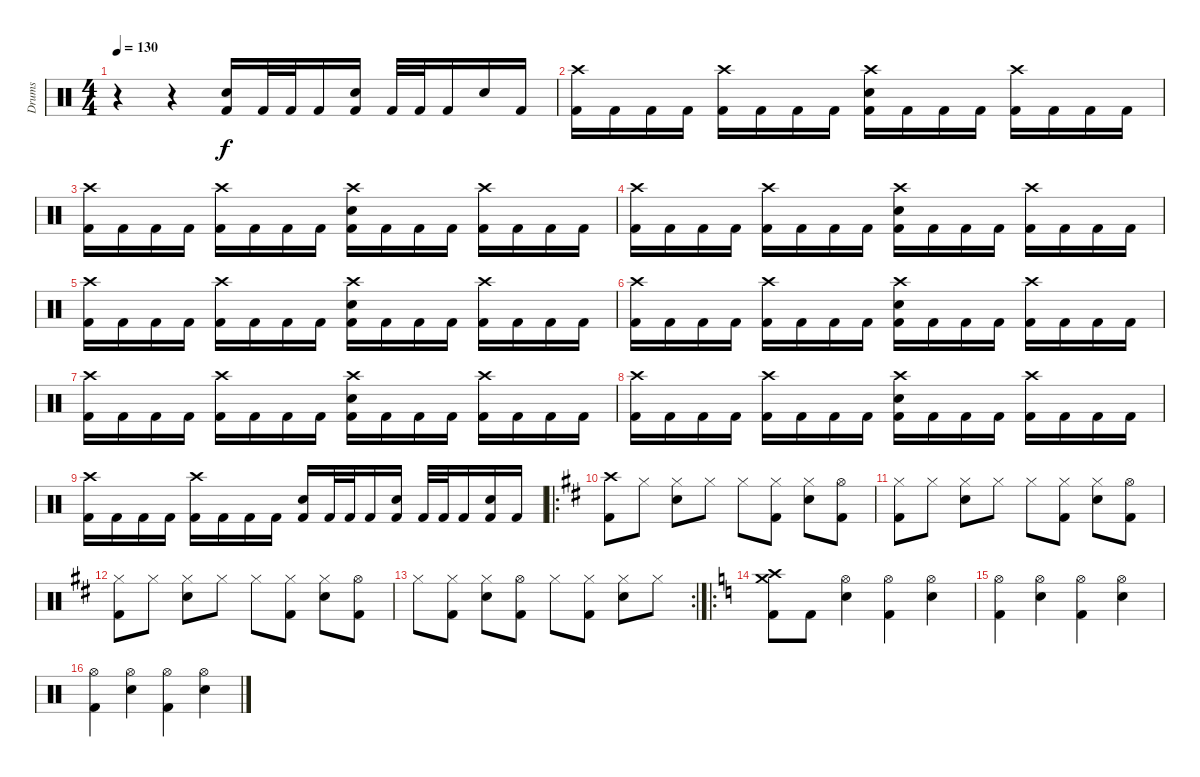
\track ("Drums" "Drums") {instrument percussion}
\staff {score}
\articulation defaults
\ts (4 4)
\tempo 130
\clef neutral
\ks c
r.4{dy f} r.4 ("Snare (hit) 2" "Kick (hit) 2").16 "Kick (hit) 2".32 "Kick (hit) 2".32 "Kick (hit) 2".16 ("Snare (hit) 2" "Kick (hit) 2").16 "Kick (hit) 2".32 "Kick (hit) 2".32 "Kick (hit) 2".16 "Snare (hit) 2".16 "Kick (hit) 2".16 |
("Crash high (hit)" "Kick (hit) 2").16 "Kick (hit) 2".16 "Kick (hit) 2".16 "Kick (hit) 2".16 ("Crash high (hit)" "Kick (hit) 2").16 "Kick (hit) 2".16 "Kick (hit) 2".16 "Kick (hit) 2".16 ("Crash high (hit)" "Snare (hit) 2" "Kick (hit) 2").16 "Kick (hit) 2".16 "Kick (hit) 2".16 "Kick (hit) 2".16 ("Crash high (hit)" "Kick (hit) 2").16 "Kick (hit) 2".16 "Kick (hit) 2".16 "Kick (hit) 2".16 |
("Crash high (hit)" "Kick (hit) 2").16 "Kick (hit) 2".16 "Kick (hit) 2".16 "Kick (hit) 2".16 ("Crash high (hit)" "Kick (hit) 2").16 "Kick (hit) 2".16 "Kick (hit) 2".16 "Kick (hit) 2".16 ("Crash high (hit)" "Snare (hit) 2" "Kick (hit) 2").16 "Kick (hit) 2".16 "Kick (hit) 2".16 "Kick (hit) 2".16 ("Crash high (hit)" "Kick (hit) 2").16 "Kick (hit) 2".16 "Kick (hit) 2".16 "Kick (hit) 2".16 |
("Crash high (hit)" "Kick (hit) 2").16 "Kick (hit) 2".16 "Kick (hit) 2".16 "Kick (hit) 2".16 ("Crash high (hit)" "Kick (hit) 2").16 "Kick (hit) 2".16 "Kick (hit) 2".16 "Kick (hit) 2".16 ("Crash high (hit)" "Snare (hit) 2" "Kick (hit) 2").16 "Kick (hit) 2".16 "Kick (hit) 2".16 "Kick (hit) 2".16 ("Crash high (hit)" "Kick (hit) 2").16 "Kick (hit) 2".16 "Kick (hit) 2".16 "Kick (hit) 2".16 |
("Crash high (hit)" "Kick (hit) 2").16 "Kick (hit) 2".16 "Kick (hit) 2".16 "Kick (hit) 2".16 ("Crash high (hit)" "Kick (hit) 2").16 "Kick (hit) 2".16 "Kick (hit) 2".16 "Kick (hit) 2".16 ("Crash high (hit)" "Snare (hit) 2" "Kick (hit) 2").16 "Kick (hit) 2".16 "Kick (hit) 2".16 "Kick (hit) 2".16 ("Crash high (hit)" "Kick (hit) 2").16 "Kick (hit) 2".16 "Kick (hit) 2".16 "Kick (hit) 2".16 |
("Crash high (hit)" "Kick (hit) 2").16 "Kick (hit) 2".16 "Kick (hit) 2".16 "Kick (hit) 2".16 ("Crash high (hit)" "Kick (hit) 2").16 "Kick (hit) 2".16 "Kick (hit) 2".16 "Kick (hit) 2".16 ("Crash high (hit)" "Snare (hit) 2" "Kick (hit) 2").16 "Kick (hit) 2".16 "Kick (hit) 2".16 "Kick (hit) 2".16 ("Crash high (hit)" "Kick (hit) 2").16 "Kick (hit) 2".16 "Kick (hit) 2".16 "Kick (hit) 2".16 |
("Crash high (hit)" "Kick (hit) 2").16 "Kick (hit) 2".16 "Kick (hit) 2".16 "Kick (hit) 2".16 ("Crash high (hit)" "Kick (hit) 2").16 "Kick (hit) 2".16 "Kick (hit) 2".16 "Kick (hit) 2".16 ("Crash high (hit)" "Snare (hit) 2" "Kick (hit) 2").16 "Kick (hit) 2".16 "Kick (hit) 2".16 "Kick (hit) 2".16 ("Crash high (hit)" "Kick (hit) 2").16 "Kick (hit) 2".16 "Kick (hit) 2".16 "Kick (hit) 2".16 |
("Crash high (hit)" "Kick (hit) 2").16 "Kick (hit) 2".16 "Kick (hit) 2".16 "Kick (hit) 2".16 ("Crash high (hit)" "Kick (hit) 2").16 "Kick (hit) 2".16 "Kick (hit) 2".16 "Kick (hit) 2".16 ("Crash high (hit)" "Snare (hit) 2" "Kick (hit) 2").16 "Kick (hit) 2".16 "Kick (hit) 2".16 "Kick (hit) 2".16 ("Crash high (hit)" "Kick (hit) 2").16 "Kick (hit) 2".16 "Kick (hit) 2".16 "Kick (hit) 2".16 |
("Crash high (hit)" "Kick (hit) 2").16 "Kick (hit) 2".16 "Kick (hit) 2".16 "Kick (hit) 2".16 ("Crash high (hit)" "Kick (hit) 2").16 "Kick (hit) 2".16 "Kick (hit) 2".16 "Kick (hit) 2".16 ("Snare (hit) 2" "Kick (hit) 2").16 "Kick (hit) 2".32 "Kick (hit) 2".32 "Kick (hit) 2".16 ("Snare (hit) 2" "Kick (hit) 2").16 "Kick (hit) 2".32 "Kick (hit) 2".32 "Kick (hit) 2".16 ("Snare (hit) 2" "Kick (hit) 2").16 "Kick (hit) 2".16 |
\ro
\ks d
("Crash high (hit)" "Kick (hit) 2").8 "Hi-Hat (closed)".8 ("Hi-Hat (closed)" "Snare (hit) 2").8 "Hi-Hat (closed)".8 "Hi-Hat (closed)".8 ("Hi-Hat (closed)" "Kick (hit) 2").8 ("Hi-Hat (closed)" "Snare (hit) 2").8 ("Hi-Hat (open)" "Kick (hit) 2").8 |
("Hi-Hat (closed)" "Kick (hit) 2").8 "Hi-Hat (closed)".8 ("Hi-Hat (closed)" "Snare (hit) 2").8 "Hi-Hat (closed)".8 "Hi-Hat (closed)".8 ("Hi-Hat (closed)" "Kick (hit) 2").8 ("Hi-Hat (closed)" "Snare (hit) 2").8 ("Hi-Hat (open)" "Kick (hit) 2").8 |
("Hi-Hat (closed)" "Kick (hit) 2").8 "Hi-Hat (closed)".8 ("Hi-Hat (closed)" "Snare (hit) 2").8 "Hi-Hat (closed)".8 "Hi-Hat (closed)".8 ("Hi-Hat (closed)" "Kick (hit) 2").8 ("Hi-Hat (closed)" "Snare (hit) 2").8 ("Hi-Hat (open)" "Kick (hit) 2").8 |
\rc 2 "Hi-Hat (closed)".8
("Hi-Hat (closed)" "Kick (hit) 2").8 ("Hi-Hat (closed)" "Snare (hit) 2").8 ("Hi-Hat (open)" "Kick (hit) 2").8 "Hi-Hat (closed)".8 ("Hi-Hat (closed)" "Kick (hit) 2").8 ("Hi-Hat (closed)" "Snare (hit) 2").8 "Hi-Hat (closed)".8 |
\ro
\ks c
("Crash high (hit)" "Crash medium (hit)" "Kick (hit) 2").8 "Kick (hit) 2".8 ("Hi-Hat (open)" "Snare (hit) 2").4 ("Hi-Hat (open)" "Kick (hit) 2").4 ("Hi-Hat (open)" "Snare (hit) 2").4 |
("Hi-Hat (open)" "Kick (hit) 2").4 ("Hi-Hat (open)" "Snare (hit) 2").4 ("Hi-Hat (open)" "Kick (hit) 2").4 ("Hi-Hat (open)" "Snare (hit) 2").4 |
("Hi-Hat (open)" "Kick (hit) 2").4 ("Hi-Hat (open)" "Snare (hit) 2").4 ("Hi-Hat (open)" "Kick (hit) 2").4 ("Hi-Hat (open)" "Snare (hit) 2").4
